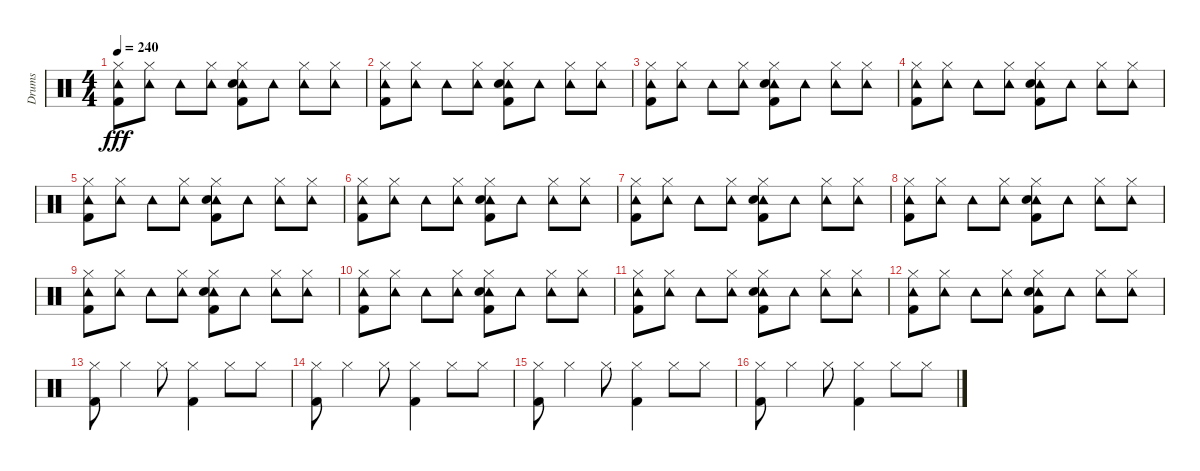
\track ("Drums" "Drums") {instrument percussion}
\staff {score}
\articulation defaults
\ts (4 4)
\tempo 240
\clef neutral
\ks c
("Tambourine (hit)" "Hi-Hat (closed)" "Kick (hit) 2").8{dy fff} ("Tambourine (hit)" "Hi-Hat (closed)").8 "Tambourine (hit)".8 ("Tambourine (hit)" "Hi-Hat (closed)").8 ("Tambourine (hit)" "Hi-Hat (closed)" "Hand Clap (hit)" "Kick (hit) 2").8 "Tambourine (hit)".8 ("Tambourine (hit)" "Hi-Hat (closed)").8 ("Tambourine (hit)" "Hi-Hat (closed)").8 |
("Tambourine (hit)" "Hi-Hat (closed)" "Kick (hit) 2").8 ("Tambourine (hit)" "Hi-Hat (closed)").8 "Tambourine (hit)".8 ("Tambourine (hit)" "Hi-Hat (closed)").8 ("Tambourine (hit)" "Hi-Hat (closed)" "Hand Clap (hit)" "Kick (hit) 2").8 "Tambourine (hit)".8 ("Tambourine (hit)" "Hi-Hat (closed)").8 ("Tambourine (hit)" "Hi-Hat (closed)").8 |
("Tambourine (hit)" "Hi-Hat (closed)" "Kick (hit) 2").8 ("Tambourine (hit)" "Hi-Hat (closed)").8 "Tambourine (hit)".8 ("Tambourine (hit)" "Hi-Hat (closed)").8 ("Tambourine (hit)" "Hi-Hat (closed)" "Hand Clap (hit)" "Kick (hit) 2").8 "Tambourine (hit)".8 ("Tambourine (hit)" "Hi-Hat (closed)").8 ("Tambourine (hit)" "Hi-Hat (closed)").8 |
("Tambourine (hit)" "Hi-Hat (closed)" "Kick (hit) 2").8 ("Tambourine (hit)" "Hi-Hat (closed)").8 "Tambourine (hit)".8 ("Tambourine (hit)" "Hi-Hat (closed)").8 ("Tambourine (hit)" "Hi-Hat (closed)" "Hand Clap (hit)" "Kick (hit) 2").8 "Tambourine (hit)".8 ("Tambourine (hit)" "Hi-Hat (closed)").8 ("Tambourine (hit)" "Hi-Hat (closed)").8 |
("Tambourine (hit)" "Hi-Hat (closed)" "Kick (hit) 2").8 ("Tambourine (hit)" "Hi-Hat (closed)").8 "Tambourine (hit)".8 ("Tambourine (hit)" "Hi-Hat (closed)").8 ("Tambourine (hit)" "Hi-Hat (closed)" "Hand Clap (hit)" "Kick (hit) 2").8 "Tambourine (hit)".8 ("Tambourine (hit)" "Hi-Hat (closed)").8 ("Tambourine (hit)" "Hi-Hat (closed)").8 |
("Tambourine (hit)" "Hi-Hat (closed)" "Kick (hit) 2").8 ("Tambourine (hit)" "Hi-Hat (closed)").8 "Tambourine (hit)".8 ("Tambourine (hit)" "Hi-Hat (closed)").8 ("Tambourine (hit)" "Hi-Hat (closed)" "Hand Clap (hit)" "Kick (hit) 2").8 "Tambourine (hit)".8 ("Tambourine (hit)" "Hi-Hat (closed)").8 ("Tambourine (hit)" "Hi-Hat (closed)").8 |
("Tambourine (hit)" "Hi-Hat (closed)" "Kick (hit) 2").8 ("Tambourine (hit)" "Hi-Hat (closed)").8 "Tambourine (hit)".8 ("Tambourine (hit)" "Hi-Hat (closed)").8 ("Tambourine (hit)" "Hi-Hat (closed)" "Hand Clap (hit)" "Kick (hit) 2").8 "Tambourine (hit)".8 ("Tambourine (hit)" "Hi-Hat (closed)").8 ("Tambourine (hit)" "Hi-Hat (closed)").8 |
("Tambourine (hit)" "Hi-Hat (closed)" "Kick (hit) 2").8 ("Tambourine (hit)" "Hi-Hat (closed)").8 "Tambourine (hit)".8 ("Tambourine (hit)" "Hi-Hat (closed)").8 ("Tambourine (hit)" "Hi-Hat (closed)" "Hand Clap (hit)" "Kick (hit) 2").8 "Tambourine (hit)".8 ("Tambourine (hit)" "Hi-Hat (closed)").8 ("Tambourine (hit)" "Hi-Hat (closed)").8 |
("Tambourine (hit)" "Hi-Hat (closed)" "Kick (hit) 2").8 ("Tambourine (hit)" "Hi-Hat (closed)").8 "Tambourine (hit)".8 ("Tambourine (hit)" "Hi-Hat (closed)").8 ("Tambourine (hit)" "Hi-Hat (closed)" "Hand Clap (hit)" "Kick (hit) 2").8 "Tambourine (hit)".8 ("Tambourine (hit)" "Hi-Hat (closed)").8 ("Tambourine (hit)" "Hi-Hat (closed)").8 |
("Tambourine (hit)" "Hi-Hat (closed)" "Kick (hit) 2").8 ("Tambourine (hit)" "Hi-Hat (closed)").8 "Tambourine (hit)".8 ("Tambourine (hit)" "Hi-Hat (closed)").8 ("Tambourine (hit)" "Hi-Hat (closed)" "Hand Clap (hit)" "Kick (hit) 2").8 "Tambourine (hit)".8 ("Tambourine (hit)" "Hi-Hat (closed)").8 ("Tambourine (hit)" "Hi-Hat (closed)").8 |
("Tambourine (hit)" "Hi-Hat (closed)" "Kick (hit) 2").8 ("Tambourine (hit)" "Hi-Hat (closed)").8 "Tambourine (hit)".8 ("Tambourine (hit)" "Hi-Hat (closed)").8 ("Tambourine (hit)" "Hi-Hat (closed)" "Hand Clap (hit)" "Kick (hit) 2").8 "Tambourine (hit)".8 ("Tambourine (hit)" "Hi-Hat (closed)").8 ("Tambourine (hit)" "Hi-Hat (closed)").8 |
("Tambourine (hit)" "Hi-Hat (closed)" "Kick (hit) 2").8 ("Tambourine (hit)" "Hi-Hat (closed)").8 "Tambourine (hit)".8 ("Tambourine (hit)" "Hi-Hat (closed)").8 ("Tambourine (hit)" "Hi-Hat (closed)" "Hand Clap (hit)" "Kick (hit) 2").8 "Tambourine (hit)".8 ("Tambourine (hit)" "Hi-Hat (closed)").8 ("Tambourine (hit)" "Hi-Hat (closed)").8 |
("Hi-Hat (closed)" "Kick (hit) 2").8 "Hi-Hat (closed)".4 "Hi-Hat (closed)".8 ("Hi-Hat (closed)" "Kick (hit) 2").4 "Hi-Hat (closed)".8 "Hi-Hat (closed)".8 |
("Hi-Hat (closed)" "Kick (hit) 2").8 "Hi-Hat (closed)".4 "Hi-Hat (closed)".8 ("Hi-Hat (closed)" "Kick (hit) 2").4 "Hi-Hat (closed)".8 "Hi-Hat (closed)".8 |
("Hi-Hat (closed)" "Kick (hit) 2").8 "Hi-Hat (closed)".4 "Hi-Hat (closed)".8 ("Hi-Hat (closed)" "Kick (hit) 2").4 "Hi-Hat (closed)".8 "Hi-Hat (closed)".8 |
("Hi-Hat (closed)" "Kick (hit) 2").8 "Hi-Hat (closed)".4 "Hi-Hat (closed)".8 ("Hi-Hat (closed)" "Kick (hit) 2").4 "Hi-Hat (closed)".8 "Hi-Hat (closed)".8
